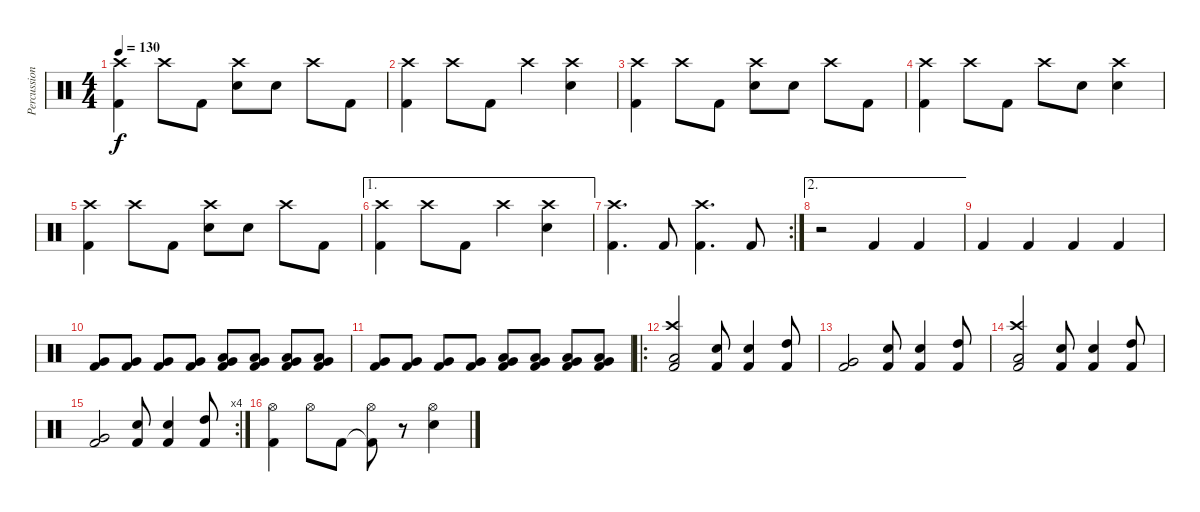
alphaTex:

\track ("Percussioni" "Percussion") {instrument percussion}
\staff {score}
\articulation defaults
\ts (4 4)
\tempo 130
\clef neutral
\ks c
("Kick (hit) 2" "Crash high (hit)").4{dy f} "Crash high (hit)".8 "Kick (hit) 2".8 ("Crash high (hit)" "Snare (hit) 2").8 "Snare (hit) 2".8 "Crash high (hit)".8 "Kick (hit) 2".8 |
("Kick (hit) 2" "Crash high (hit)").4 "Crash high (hit)".8 "Kick (hit) 2".8 "Crash high (hit)".4 ("Crash high (hit)" "Snare (hit) 2").4 |
("Kick (hit) 2" "Crash high (hit)").4 "Crash high (hit)".8 "Kick (hit) 2".8 ("Crash high (hit)" "Snare (hit) 2").8 "Snare (hit) 2".8 "Crash high (hit)".8 "Kick (hit) 2".8 |
("Kick (hit) 2" "Crash high (hit)").4 "Crash high (hit)".8 "Kick (hit) 2".8 "Crash high (hit)".8 "Snare (hit) 2".8 ("Crash high (hit)" "Snare (hit) 2").4 |
("Kick (hit) 2" "Crash high (hit)").4 "Crash high (hit)".8 "Kick (hit) 2".8 ("Crash high (hit)" "Snare (hit) 2").8 "Snare (hit) 2".8 "Crash high (hit)".8 "Kick (hit) 2".8 |
\ae 1
("Kick (hit) 2" "Crash high (hit)").4 "Crash high (hit)".8 "Kick (hit) 2".8 "Crash high (hit)".4 ("Crash high (hit)" "Snare (hit) 2").4 |
\rc 2
("Kick (hit) 2" "Crash high (hit)").4{d} "Kick (hit) 2".8 ("Kick (hit) 2" "Crash high (hit)").4{d} "Kick (hit) 2".8 |
\ae 2
r.2 "Kick (hit) 2".4 "Kick (hit) 2".4 |
"Kick (hit) 2".4 "Kick (hit) 2".4 "Kick (hit) 2".4 "Kick (hit) 2".4 |
("Kick (hit) 2" "Very Low Tom (hit)").8 ("Kick (hit) 2" "Very Low Tom (hit)").8 ("Kick (hit) 2" "Very Low Tom (hit)").8 ("Kick (hit) 2" "Very Low Tom (hit)").8 ("Kick (hit) 2" "Very Low Tom (hit)" "Low Tom (hit)").8 ("Kick (hit) 2" "Very Low Tom (hit)" "Low Tom (hit)").8 ("Kick (hit) 2" "Very Low Tom (hit)" "Low Tom (hit)").8 ("Kick (hit) 2" "Very Low Tom (hit)" "Low Tom (hit)").8 |
("Kick (hit) 2" "Very Low Tom (hit)").8 ("Kick (hit) 2" "Very Low Tom (hit)").8 ("Kick (hit) 2" "Very Low Tom (hit)").8 ("Kick (hit) 2" "Very Low Tom (hit)").8 ("Kick (hit) 2" "Very Low Tom (hit)" "Low Tom (hit)").8 ("Kick (hit) 2" "Very Low Tom (hit)" "Low Tom (hit)").8 ("Kick (hit) 2" "Very Low Tom (hit)" "Low Tom (hit)").8 ("Kick (hit) 2" "Very Low Tom (hit)" "Low Tom (hit)").8 |
\ro
("Kick (hit) 2" "Low Tom (hit)" "Crash high (hit)").2 ("Snare (hit) 2" "Kick (hit) 2").8 ("Snare (hit) 2" "Kick (hit) 2").4 ("High Tom (hit)" "Kick (hit) 2").8 |
("Kick (hit) 2" "Very Low Tom (hit)").2 ("Snare (hit) 2" "Kick (hit) 2").8 ("Snare (hit) 2" "Kick (hit) 2").4 ("High Tom (hit)" "Kick (hit) 2").8 |
("Kick (hit) 2" "Low Tom (hit)" "Crash high (hit)").2 ("Snare (hit) 2" "Kick (hit) 2").8 ("Snare (hit) 2" "Kick (hit) 2").4 ("High Tom (hit)" "Kick (hit) 2").8 |
\rc 4
("Kick (hit) 2" "Very Low Tom (hit)").2 ("Snare (hit) 2" "Kick (hit) 2").8 ("Snare (hit) 2" "Kick (hit) 2").4 ("High Tom (hit)" "Kick (hit) 2").8 |
("Kick (hit) 2" "Hi-Hat (open)").4 "Hi-Hat (open)".8 "Kick (hit) 2".8 ("Kick (hit) 2"{t} "Hi-Hat (open)").8 r.8 ("Snare (hit) 2" "Hi-Hat (open)").4
